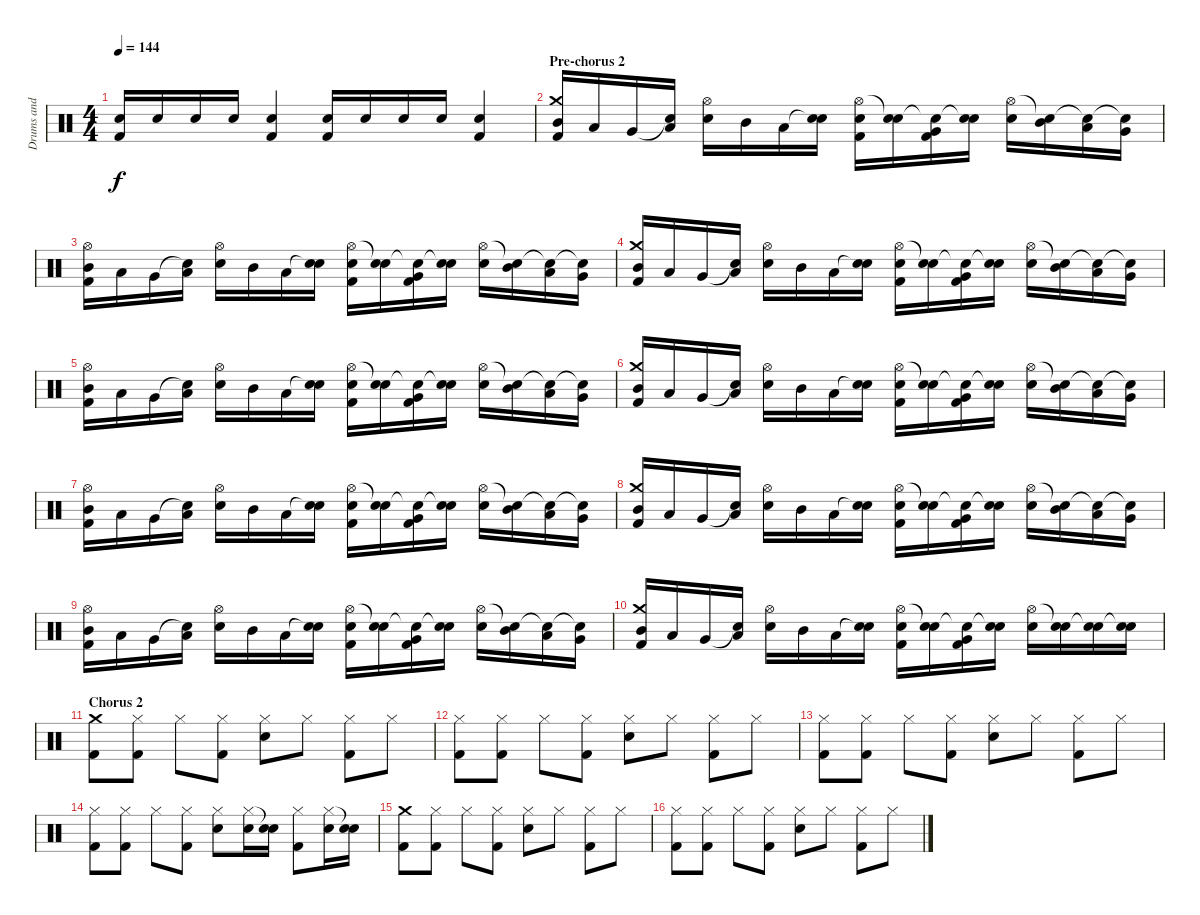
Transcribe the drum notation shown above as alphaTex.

\track ("Drums and Percussion" "Drums and ") {instrument percussion}
\staff {score}
\articulation defaults
\ts (4 4)
\tempo 144
\clef neutral
\ks c
("Electric Snare (hit)" "Kick (hit) 2").16{dy f} "Electric Snare (hit)".16 "Electric Snare (hit)".16 "Electric Snare (hit)".16 ("Electric Snare (hit)" "Kick (hit) 2").4 ("Electric Snare (hit)" "Kick (hit) 2").16 "Electric Snare (hit)".16 "Electric Snare (hit)".16 "Electric Snare (hit)".16 ("Electric Snare (hit)" "Kick (hit) 2").4 |
\section ("" "Pre-chorus 2")
("Crash medium (hit)" "Mid Tom (hit)" "Kick (hit) 2").16 "Low Tom (hit)".16 "Very Low Tom (hit)".16 ("Snare (hit)"{t} "Low Floor Tom (hit)").16 ("Hi-Hat (open)" "Electric Snare (hit)").16 "Mid Tom (hit)".16 "Low Tom (hit)".16 ("Snare (hit)"{t} "Electric Snare (hit)").16 ("Hi-Hat (open)" "Electric Snare (hit)" "Kick (hit) 2").16 ("Snare (hit)"{t} "Electric Snare (hit)").16 ("Snare (hit)"{t} "Very Low Tom (hit)" "Kick (hit) 2").16 ("Snare (hit)"{t} "Electric Snare (hit)").16 ("Hi-Hat (open)" "Electric Snare (hit)").16 ("Snare (hit)"{t} "Mid Tom (hit)").16 ("Snare (hit)"{t} "Low Tom (hit)").16 ("Snare (hit)"{t} "Very Low Tom (hit)").16 |
("Hi-Hat (open)" "Mid Tom (hit)" "Kick (hit) 2").16 "Low Tom (hit)".16 "Very Low Tom (hit)".16 ("Snare (hit)"{t} "Low Floor Tom (hit)").16 ("Hi-Hat (open)" "Electric Snare (hit)").16 "Mid Tom (hit)".16 "Low Tom (hit)".16 ("Snare (hit)"{t} "Electric Snare (hit)").16 ("Hi-Hat (open)" "Electric Snare (hit)" "Kick (hit) 2").16 ("Snare (hit)"{t} "Electric Snare (hit)").16 ("Snare (hit)"{t} "Very Low Tom (hit)" "Kick (hit) 2").16 ("Snare (hit)"{t} "Electric Snare (hit)").16 ("Hi-Hat (open)" "Electric Snare (hit)").16 ("Snare (hit)"{t} "Mid Tom (hit)").16 ("Snare (hit)"{t} "Low Tom (hit)").16 ("Snare (hit)"{t} "Very Low Tom (hit)").16 |
("Crash medium (hit)" "Mid Tom (hit)" "Kick (hit) 2").16 "Low Tom (hit)".16 "Very Low Tom (hit)".16 ("Snare (hit)"{t} "Low Floor Tom (hit)").16 ("Hi-Hat (open)" "Electric Snare (hit)").16 "Mid Tom (hit)".16 "Low Tom (hit)".16 ("Snare (hit)"{t} "Electric Snare (hit)").16 ("Hi-Hat (open)" "Electric Snare (hit)" "Kick (hit) 2").16 ("Snare (hit)"{t} "Electric Snare (hit)").16 ("Snare (hit)"{t} "Very Low Tom (hit)" "Kick (hit) 2").16 ("Snare (hit)"{t} "Electric Snare (hit)").16 ("Hi-Hat (open)" "Electric Snare (hit)").16 ("Snare (hit)"{t} "Mid Tom (hit)").16 ("Snare (hit)"{t} "Low Tom (hit)").16 ("Snare (hit)"{t} "Very Low Tom (hit)").16 |
("Hi-Hat (open)" "Mid Tom (hit)" "Kick (hit) 2").16 "Low Tom (hit)".16 "Very Low Tom (hit)".16 ("Snare (hit)"{t} "Low Floor Tom (hit)").16 ("Hi-Hat (open)" "Electric Snare (hit)").16 "Mid Tom (hit)".16 "Low Tom (hit)".16 ("Snare (hit)"{t} "Electric Snare (hit)").16 ("Hi-Hat (open)" "Electric Snare (hit)" "Kick (hit) 2").16 ("Snare (hit)"{t} "Electric Snare (hit)").16 ("Snare (hit)"{t} "Very Low Tom (hit)" "Kick (hit) 2").16 ("Snare (hit)"{t} "Electric Snare (hit)").16 ("Hi-Hat (open)" "Electric Snare (hit)").16 ("Snare (hit)"{t} "Mid Tom (hit)").16 ("Snare (hit)"{t} "Low Tom (hit)").16 ("Snare (hit)"{t} "Very Low Tom (hit)").16 |
("Crash medium (hit)" "Mid Tom (hit)" "Kick (hit) 2").16 "Low Tom (hit)".16 "Very Low Tom (hit)".16 ("Snare (hit)"{t} "Low Floor Tom (hit)").16 ("Hi-Hat (open)" "Electric Snare (hit)").16 "Mid Tom (hit)".16 "Low Tom (hit)".16 ("Snare (hit)"{t} "Electric Snare (hit)").16 ("Hi-Hat (open)" "Electric Snare (hit)" "Kick (hit) 2").16 ("Snare (hit)"{t} "Electric Snare (hit)").16 ("Snare (hit)"{t} "Very Low Tom (hit)" "Kick (hit) 2").16 ("Snare (hit)"{t} "Electric Snare (hit)").16 ("Hi-Hat (open)" "Electric Snare (hit)").16 ("Snare (hit)"{t} "Mid Tom (hit)").16 ("Snare (hit)"{t} "Low Tom (hit)").16 ("Snare (hit)"{t} "Very Low Tom (hit)").16 |
("Hi-Hat (open)" "Mid Tom (hit)" "Kick (hit) 2").16 "Low Tom (hit)".16 "Very Low Tom (hit)".16 ("Snare (hit)"{t} "Low Floor Tom (hit)").16 ("Hi-Hat (open)" "Electric Snare (hit)").16 "Mid Tom (hit)".16 "Low Tom (hit)".16 ("Snare (hit)"{t} "Electric Snare (hit)").16 ("Hi-Hat (open)" "Electric Snare (hit)" "Kick (hit) 2").16 ("Snare (hit)"{t} "Electric Snare (hit)").16 ("Snare (hit)"{t} "Very Low Tom (hit)" "Kick (hit) 2").16 ("Snare (hit)"{t} "Electric Snare (hit)").16 ("Hi-Hat (open)" "Electric Snare (hit)").16 ("Snare (hit)"{t} "Mid Tom (hit)").16 ("Snare (hit)"{t} "Low Tom (hit)").16 ("Snare (hit)"{t} "Very Low Tom (hit)").16 |
("Crash medium (hit)" "Mid Tom (hit)" "Kick (hit) 2").16 "Low Tom (hit)".16 "Very Low Tom (hit)".16 ("Snare (hit)"{t} "Low Floor Tom (hit)").16 ("Hi-Hat (open)" "Electric Snare (hit)").16 "Mid Tom (hit)".16 "Low Tom (hit)".16 ("Snare (hit)"{t} "Electric Snare (hit)").16 ("Hi-Hat (open)" "Electric Snare (hit)" "Kick (hit) 2").16 ("Snare (hit)"{t} "Electric Snare (hit)").16 ("Snare (hit)"{t} "Very Low Tom (hit)" "Kick (hit) 2").16 ("Snare (hit)"{t} "Electric Snare (hit)").16 ("Hi-Hat (open)" "Electric Snare (hit)").16 ("Snare (hit)"{t} "Mid Tom (hit)").16 ("Snare (hit)"{t} "Low Tom (hit)").16 ("Snare (hit)"{t} "Very Low Tom (hit)").16 |
("Hi-Hat (open)" "Mid Tom (hit)" "Kick (hit) 2").16 "Low Tom (hit)".16 "Very Low Tom (hit)".16 ("Snare (hit)"{t} "Low Floor Tom (hit)").16 ("Hi-Hat (open)" "Electric Snare (hit)").16 "Mid Tom (hit)".16 "Low Tom (hit)".16 ("Snare (hit)"{t} "Electric Snare (hit)").16 ("Hi-Hat (open)" "Electric Snare (hit)" "Kick (hit) 2").16 ("Snare (hit)"{t} "Electric Snare (hit)").16 ("Snare (hit)"{t} "Very Low Tom (hit)" "Kick (hit) 2").16 ("Snare (hit)"{t} "Electric Snare (hit)").16 ("Hi-Hat (open)" "Electric Snare (hit)").16 ("Snare (hit)"{t} "Mid Tom (hit)").16 ("Snare (hit)"{t} "Low Tom (hit)").16 ("Snare (hit)"{t} "Very Low Tom (hit)").16 |
("Crash medium (hit)" "Mid Tom (hit)" "Kick (hit) 2").16 "Low Tom (hit)".16 "Very Low Tom (hit)".16 ("Snare (hit)"{t} "Low Floor Tom (hit)").16 ("Hi-Hat (open)" "Electric Snare (hit)").16 "Mid Tom (hit)".16 "Low Tom (hit)".16 ("Snare (hit)"{t} "Electric Snare (hit)").16 ("Hi-Hat (open)" "Electric Snare (hit)" "Kick (hit) 2").16 ("Snare (hit)"{t} "Electric Snare (hit)").16 ("Snare (hit)"{t} "Very Low Tom (hit)" "Kick (hit) 2").16 ("Snare (hit)"{t} "Electric Snare (hit)").16 ("Hi-Hat (open)" "Electric Snare (hit)").16 ("Snare (hit)"{t} "Electric Snare (hit)").16 ("Snare (hit)"{t} "Electric Snare (hit)").16 ("Snare (hit)"{t} "Electric Snare (hit)").16 |
\section ("" "Chorus 2")
("Crash medium (hit)" "Kick (hit) 2").8 ("Hi-Hat (closed)" "Kick (hit) 2").8 "Hi-Hat (closed)".8 ("Hi-Hat (closed)" "Kick (hit) 2").8 ("Hi-Hat (closed)" "Electric Snare (hit)").8 "Hi-Hat (closed)".8 ("Hi-Hat (closed)" "Kick (hit) 2").8 "Hi-Hat (closed)".8 |
("Hi-Hat (closed)" "Kick (hit) 2").8 ("Hi-Hat (closed)" "Kick (hit) 2").8 "Hi-Hat (closed)".8 ("Hi-Hat (closed)" "Kick (hit) 2").8 ("Hi-Hat (closed)" "Electric Snare (hit)").8 "Hi-Hat (closed)".8 ("Hi-Hat (closed)" "Kick (hit) 2").8 "Hi-Hat (closed)".8 |
("Hi-Hat (closed)" "Kick (hit) 2").8 ("Hi-Hat (closed)" "Kick (hit) 2").8 "Hi-Hat (closed)".8 ("Hi-Hat (closed)" "Kick (hit) 2").8 ("Hi-Hat (closed)" "Electric Snare (hit)").8 "Hi-Hat (closed)".8 ("Hi-Hat (closed)" "Kick (hit) 2").8 "Hi-Hat (closed)".8 |
("Hi-Hat (closed)" "Kick (hit) 2").8 ("Hi-Hat (closed)" "Kick (hit) 2").8 "Hi-Hat (closed)".8 ("Hi-Hat (closed)" "Kick (hit) 2").8 ("Hi-Hat (closed)" "Electric Snare (hit)").8 ("Hi-Hat (closed)" "Electric Snare (hit)").16 ("Snare (hit)"{t} "Electric Snare (hit)").16 ("Hi-Hat (closed)" "Kick (hit) 2").8 ("Hi-Hat (closed)" "Electric Snare (hit)").16 ("Snare (hit)"{t} "Electric Snare (hit)").16 |
("Crash medium (hit)" "Kick (hit) 2").8 ("Hi-Hat (closed)" "Kick (hit) 2").8 "Hi-Hat (closed)".8 ("Hi-Hat (closed)" "Kick (hit) 2").8 ("Hi-Hat (closed)" "Electric Snare (hit)").8 "Hi-Hat (closed)".8 ("Hi-Hat (closed)" "Kick (hit) 2").8 "Hi-Hat (closed)".8 |
("Hi-Hat (closed)" "Kick (hit) 2").8 ("Hi-Hat (closed)" "Kick (hit) 2").8 "Hi-Hat (closed)".8 ("Hi-Hat (closed)" "Kick (hit) 2").8 ("Hi-Hat (closed)" "Electric Snare (hit)").8 "Hi-Hat (closed)".8 ("Hi-Hat (closed)" "Kick (hit) 2").8 "Hi-Hat (closed)".8
